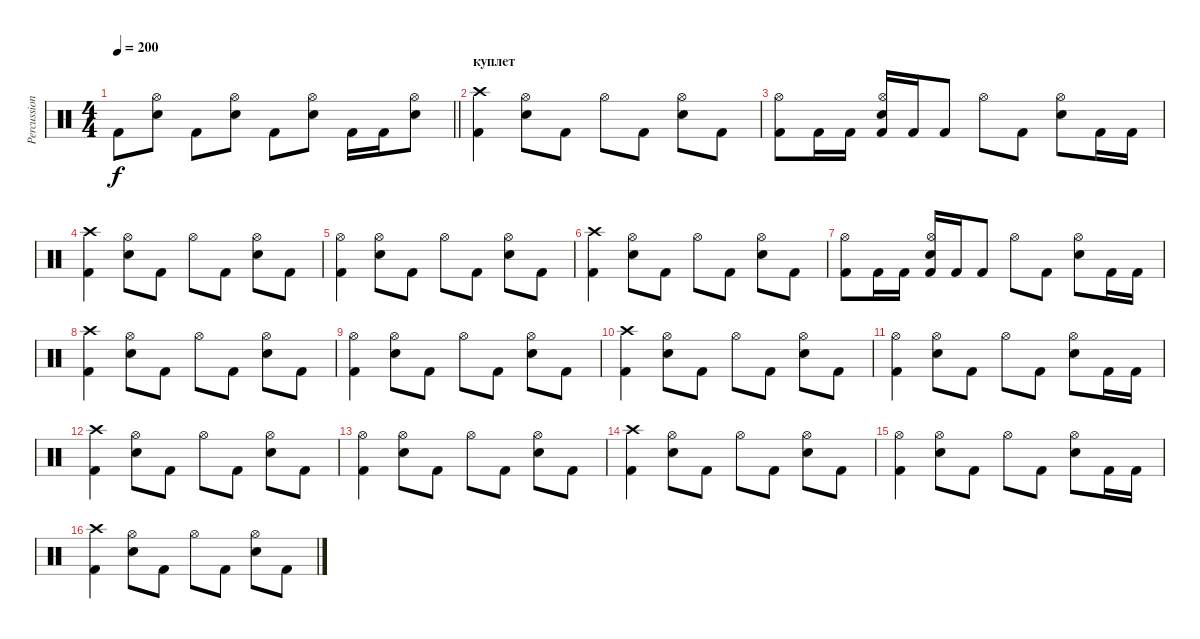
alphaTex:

\track ("Percussion" "Percussion") {instrument percussion}
\staff {score}
\articulation defaults
\ts (4 4)
\tempo 200
\clef neutral
\barLineRight lightlight
\ks c "Kick (hit) 2".8{dy f}
("Hi-Hat (open)" "Snare (hit) 2").8 "Kick (hit) 2".8 ("Hi-Hat (open)" "Snare (hit) 2").8 "Kick (hit) 2".8 ("Hi-Hat (open)" "Snare (hit) 2").8 "Kick (hit) 2".16 "Kick (hit) 2".16 ("Hi-Hat (open)" "Snare (hit) 2").8 |
\section ("" "куплет")
("Crash high (hit)" "Kick (hit) 2").4 ("Hi-Hat (open)" "Snare (hit) 2").8 "Kick (hit) 2".8 "Hi-Hat (open)".8 "Kick (hit) 2".8 ("Hi-Hat (open)" "Snare (hit) 2").8 "Kick (hit) 2".8 |
("Hi-Hat (open)" "Kick (hit) 2").8 "Kick (hit) 2".16 "Kick (hit) 2".16 ("Hi-Hat (open)" "Snare (hit) 2" "Kick (hit) 2").16 "Kick (hit) 2".16 "Kick (hit) 2".8 "Hi-Hat (open)".8 "Kick (hit) 2".8 ("Hi-Hat (open)" "Snare (hit) 2").8 "Kick (hit) 2".16 "Kick (hit) 2".16 |
("Crash high (hit)" "Kick (hit) 2").4 ("Hi-Hat (open)" "Snare (hit) 2").8 "Kick (hit) 2".8 "Hi-Hat (open)".8 "Kick (hit) 2".8 ("Hi-Hat (open)" "Snare (hit) 2").8 "Kick (hit) 2".8 |
("Hi-Hat (open)" "Kick (hit) 2").4 ("Hi-Hat (open)" "Snare (hit) 2").8 "Kick (hit) 2".8 "Hi-Hat (open)".8 "Kick (hit) 2".8 ("Hi-Hat (open)" "Snare (hit) 2").8 "Kick (hit) 2".8 |
("Crash high (hit)" "Kick (hit) 2").4 ("Hi-Hat (open)" "Snare (hit) 2").8 "Kick (hit) 2".8 "Hi-Hat (open)".8 "Kick (hit) 2".8 ("Hi-Hat (open)" "Snare (hit) 2").8 "Kick (hit) 2".8 |
("Hi-Hat (open)" "Kick (hit) 2").8 "Kick (hit) 2".16 "Kick (hit) 2".16 ("Hi-Hat (open)" "Snare (hit) 2" "Kick (hit) 2").16 "Kick (hit) 2".16 "Kick (hit) 2".8 "Hi-Hat (open)".8 "Kick (hit) 2".8 ("Hi-Hat (open)" "Snare (hit) 2").8 "Kick (hit) 2".16 "Kick (hit) 2".16 |
("Crash high (hit)" "Kick (hit) 2").4 ("Hi-Hat (open)" "Snare (hit) 2").8 "Kick (hit) 2".8 "Hi-Hat (open)".8 "Kick (hit) 2".8 ("Hi-Hat (open)" "Snare (hit) 2").8 "Kick (hit) 2".8 |
("Hi-Hat (open)" "Kick (hit) 2").4 ("Hi-Hat (open)" "Snare (hit) 2").8 "Kick (hit) 2".8 "Hi-Hat (open)".8 "Kick (hit) 2".8 ("Hi-Hat (open)" "Snare (hit) 2").8 "Kick (hit) 2".8 |
("Crash high (hit)" "Kick (hit) 2").4 ("Hi-Hat (open)" "Snare (hit) 2").8 "Kick (hit) 2".8 "Hi-Hat (open)".8 "Kick (hit) 2".8 ("Hi-Hat (open)" "Snare (hit) 2").8 "Kick (hit) 2".8 |
("Hi-Hat (open)" "Kick (hit) 2").4 ("Hi-Hat (open)" "Snare (hit) 2").8 "Kick (hit) 2".8 "Hi-Hat (open)".8 "Kick (hit) 2".8 ("Hi-Hat (open)" "Snare (hit) 2").8 "Kick (hit) 2".16 "Kick (hit) 2".16 |
("Crash high (hit)" "Kick (hit) 2").4 ("Hi-Hat (open)" "Snare (hit) 2").8 "Kick (hit) 2".8 "Hi-Hat (open)".8 "Kick (hit) 2".8 ("Hi-Hat (open)" "Snare (hit) 2").8 "Kick (hit) 2".8 |
("Hi-Hat (open)" "Kick (hit) 2").4 ("Hi-Hat (open)" "Snare (hit) 2").8 "Kick (hit) 2".8 "Hi-Hat (open)".8 "Kick (hit) 2".8 ("Hi-Hat (open)" "Snare (hit) 2").8 "Kick (hit) 2".8 |
("Crash high (hit)" "Kick (hit) 2").4 ("Hi-Hat (open)" "Snare (hit) 2").8 "Kick (hit) 2".8 "Hi-Hat (open)".8 "Kick (hit) 2".8 ("Hi-Hat (open)" "Snare (hit) 2").8 "Kick (hit) 2".8 |
("Hi-Hat (open)" "Kick (hit) 2").4 ("Hi-Hat (open)" "Snare (hit) 2").8 "Kick (hit) 2".8 "Hi-Hat (open)".8 "Kick (hit) 2".8 ("Hi-Hat (open)" "Snare (hit) 2").8 "Kick (hit) 2".16 "Kick (hit) 2".16 |
("Crash high (hit)" "Kick (hit) 2").4 ("Hi-Hat (open)" "Snare (hit) 2").8 "Kick (hit) 2".8 "Hi-Hat (open)".8 "Kick (hit) 2".8 ("Hi-Hat (open)" "Snare (hit) 2").8 "Kick (hit) 2".8
